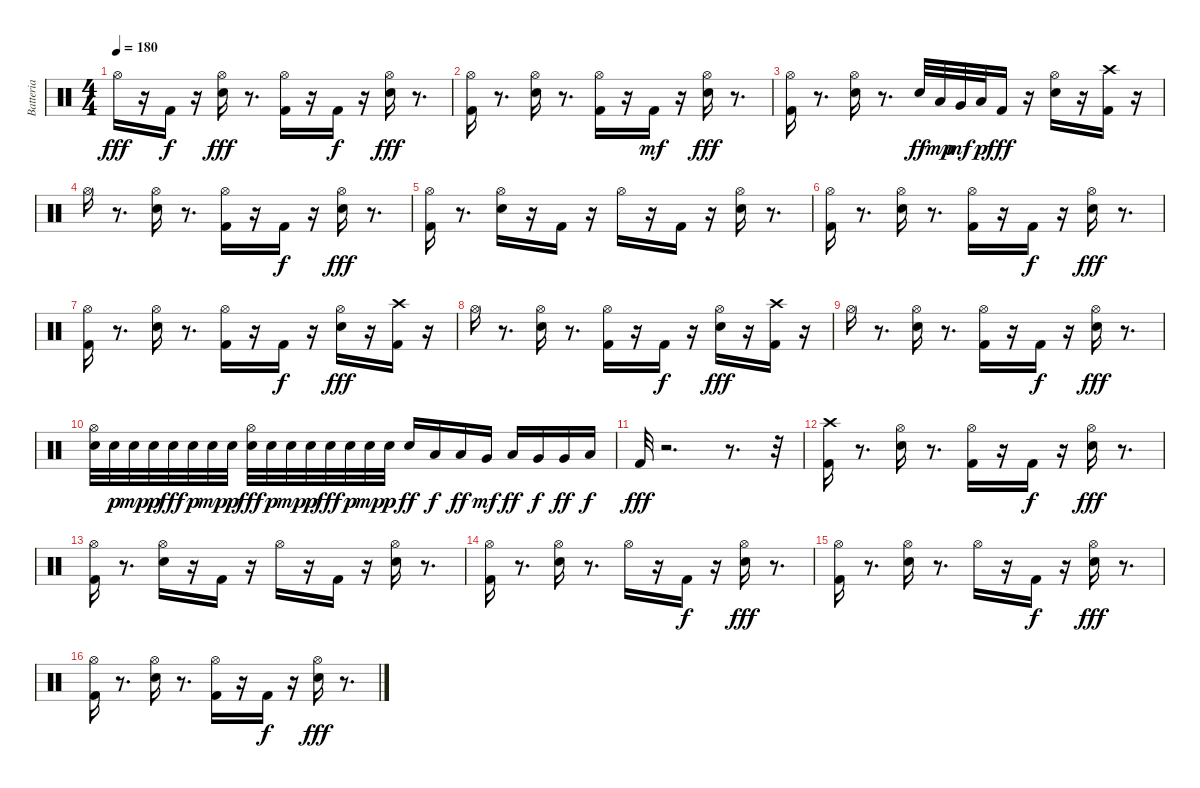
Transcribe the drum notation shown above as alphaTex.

\track ("Batteria" "Batteria") {instrument percussion}
\staff {score}
\articulation defaults
\ts (4 4)
\tempo 180
\clef neutral
\ks c "Hi-Hat (open)".16{dy fff}
r.16 "Kick (hit) 2".16{dy f} r.16 ("Electric Snare (hit)" "Hi-Hat (open)").16{dy fff} r.8{d} ("Hi-Hat (open)" "Kick (hit) 2").16 r.16 "Kick (hit) 2".16{dy f} r.16 ("Hi-Hat (open)" "Electric Snare (hit)").16{dy fff} r.8{d} |
("Kick (hit) 2" "Hi-Hat (open)").16 r.8{d} ("Hi-Hat (open)" "Electric Snare (hit)").16 r.8{d} ("Kick (hit) 2" "Hi-Hat (open)").16 r.16 "Kick (hit) 2".16{dy mf} r.16 ("Electric Snare (hit)" "Hi-Hat (open)").16{dy fff} r.8{d} |
("Hi-Hat (open)" "Kick (hit) 2").16 r.8{d} ("Electric Snare (hit)" "Hi-Hat (open)").16 r.8{d} "Electric Snare (hit)".32{dy ff} "Low Tom (hit)".32{dy mp} "Very Low Tom (hit)".32{dy mf} "Low Floor Tom (hit)".32{dy p} "Kick (hit) 2".16{dy fff} r.16 ("Hi-Hat (open)" "Electric Snare (hit)").16 r.16 ("Kick (hit) 2" "Crash high (hit)").16 r.16 |
"Hi-Hat (open)".16 r.8{d} ("Hi-Hat (open)" "Electric Snare (hit)").16 r.8{d} ("Kick (hit) 2" "Hi-Hat (open)").16 r.16 "Kick (hit) 2".16{dy f} r.16 ("Electric Snare (hit)" "Hi-Hat (open)").16{dy fff} r.8{d} |
("Kick (hit) 2" "Hi-Hat (open)").16 r.8{d} ("Electric Snare (hit)" "Hi-Hat (open)").16 r.16 "Kick (hit) 2".16 r.16 "Hi-Hat (open)".16 r.16 "Kick (hit) 2".16 r.16 ("Hi-Hat (open)" "Electric Snare (hit)").16 r.8{d} |
("Kick (hit) 2" "Hi-Hat (open)").16 r.8{d} ("Hi-Hat (open)" "Electric Snare (hit)").16 r.8{d} ("Kick (hit) 2" "Hi-Hat (open)").16 r.16 "Kick (hit) 2".16{dy f} r.16 ("Electric Snare (hit)" "Hi-Hat (open)").16{dy fff} r.8{d} |
("Hi-Hat (open)" "Kick (hit) 2").16 r.8{d} ("Electric Snare (hit)" "Hi-Hat (open)").16 r.8{d} ("Hi-Hat (open)" "Kick (hit) 2").16 r.16 "Kick (hit) 2".16{dy f} r.16 ("Hi-Hat (open)" "Electric Snare (hit)").16{dy fff} r.16 ("Kick (hit) 2" "Crash high (hit)").16 r.16 |
"Hi-Hat (open)".16 r.8{d} ("Hi-Hat (open)" "Electric Snare (hit)").16 r.8{d} ("Kick (hit) 2" "Hi-Hat (open)").16 r.16 "Kick (hit) 2".16{dy f} r.16 ("Electric Snare (hit)" "Hi-Hat (open)").16{dy fff} r.16 ("Kick (hit) 2" "Crash high (hit)").16 r.16 |
"Hi-Hat (open)".16 r.8{d} ("Electric Snare (hit)" "Hi-Hat (open)").16 r.8{d} ("Hi-Hat (open)" "Kick (hit) 2").16 r.16 "Kick (hit) 2".16{dy f} r.16 ("Hi-Hat (open)" "Electric Snare (hit)").16{dy fff} r.8{d} |
("Hi-Hat (open)" "Electric Snare (hit)").32 "Electric Snare (hit)".32{dy p} "Electric Snare (hit)".32{dy mp} "Electric Snare (hit)".32{dy p} "Electric Snare (hit)".32{dy fff} "Electric Snare (hit)".32{dy p} "Electric Snare (hit)".32{dy mp} "Electric Snare (hit)".32{dy p} ("Hi-Hat (open)" "Electric Snare (hit)").32{dy fff} "Electric Snare (hit)".32{dy p} "Electric Snare (hit)".32{dy mp} "Electric Snare (hit)".32{dy p} "Electric Snare (hit)".32{dy fff} "Electric Snare (hit)".32{dy p} "Electric Snare (hit)".32{dy mp} "Electric Snare (hit)".32{dy p} "Electric Snare (hit)".16{dy ff} "Low Tom (hit)".16{dy f} "Low Tom (hit)".16{dy ff} "Very Low Tom (hit)".16{dy mf} "Low Tom (hit)".16{dy ff} "Very Low Tom (hit)".16{dy f} "Very Low Tom (hit)".16{dy ff} "Low Floor Tom (hit)".16{dy f} |
"Kick (hit) 2".32{dy fff} r.2{d} r.8{d} r.32 |
("Kick (hit) 2" "Crash high (hit)").16 r.8{d} ("Hi-Hat (open)" "Electric Snare (hit)").16 r.8{d} ("Hi-Hat (open)" "Kick (hit) 2").16 r.16 "Kick (hit) 2".16{dy f} r.16 ("Hi-Hat (open)" "Electric Snare (hit)").16{dy fff} r.8{d} |
("Hi-Hat (open)" "Kick (hit) 2").16 r.8{d} ("Hi-Hat (open)" "Electric Snare (hit)").16 r.16 "Kick (hit) 2".16 r.16 "Hi-Hat (open)".16 r.16 "Kick (hit) 2".16 r.16 ("Electric Snare (hit)" "Hi-Hat (open)").16 r.8{d} |
("Hi-Hat (open)" "Kick (hit) 2").16 r.8{d} ("Electric Snare (hit)" "Hi-Hat (open)").16 r.8{d} "Hi-Hat (open)".16 r.16 "Kick (hit) 2".16{dy f} r.16 ("Hi-Hat (open)" "Electric Snare (hit)").16{dy fff} r.8{d} |
("Kick (hit) 2" "Hi-Hat (open)").16 r.8{d} ("Hi-Hat (open)" "Electric Snare (hit)").16 r.8{d} "Hi-Hat (open)".16 r.16 "Kick (hit) 2".16{dy f} r.16 ("Hi-Hat (open)" "Electric Snare (hit)").16{dy fff} r.8{d} |
("Hi-Hat (open)" "Kick (hit) 2").16 r.8{d} ("Hi-Hat (open)" "Electric Snare (hit)").16 r.8{d} ("Kick (hit) 2" "Hi-Hat (open)").16 r.16 "Kick (hit) 2".16{dy f} r.16 ("Electric Snare (hit)" "Hi-Hat (open)").16{dy fff} r.8{d}
